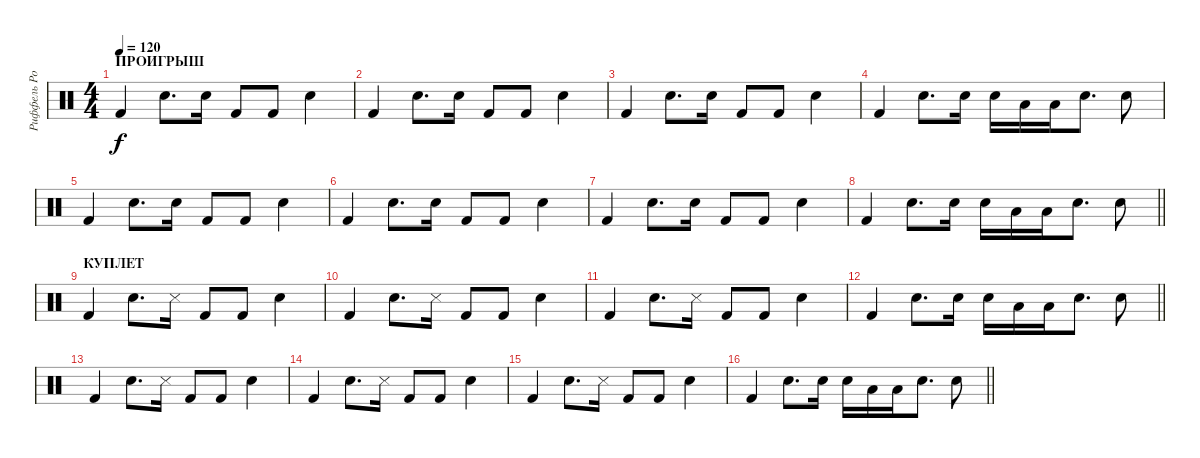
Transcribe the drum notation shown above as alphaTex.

\track ("Риффель Роман(главные)" "Риффель Ро") {instrument percussion}
\staff {score}
\articulation defaults
\ts (4 4)
\section ("" "ПРОИГРЫШ")
\tempo 120
\clef neutral
\ks c "Kick (hit) 2".4{dy f} "Electric Snare (hit)".8{d} "Electric Snare (hit)".16 "Kick (hit) 2".8 "Kick (hit) 2".8 "Electric Snare (hit)".4
|
"Kick (hit) 2".4 "Electric Snare (hit)".8{d} "Electric Snare (hit)".16 "Kick (hit) 2".8 "Kick (hit) 2".8 "Electric Snare (hit)".4 |
"Kick (hit) 2".4 "Electric Snare (hit)".8{d} "Electric Snare (hit)".16 "Kick (hit) 2".8 "Kick (hit) 2".8 "Electric Snare (hit)".4 |
"Kick (hit) 2".4 "Electric Snare (hit)".8{d} "Electric Snare (hit)".16 "Electric Snare (hit)".16 "Low Tom (hit)".16 "Low Tom (hit)".16 "Electric Snare (hit)".8{d} "Electric Snare (hit)".8 |
"Kick (hit) 2".4 "Electric Snare (hit)".8{d} "Electric Snare (hit)".16 "Kick (hit) 2".8 "Kick (hit) 2".8 "Electric Snare (hit)".4 |
"Kick (hit) 2".4 "Electric Snare (hit)".8{d} "Electric Snare (hit)".16 "Kick (hit) 2".8 "Kick (hit) 2".8 "Electric Snare (hit)".4 |
"Kick (hit) 2".4 "Electric Snare (hit)".8{d} "Electric Snare (hit)".16 "Kick (hit) 2".8 "Kick (hit) 2".8 "Electric Snare (hit)".4 |
\barLineRight lightlight "Kick (hit) 2".4 "Electric Snare (hit)".8{d} "Electric Snare (hit)".16 "Electric Snare (hit)".16 "Low Tom (hit)".16 "Low Tom (hit)".16 "Electric Snare (hit)".8{d} "Electric Snare (hit)".8
|
\section ("" "КУПЛЕТ")
"Kick (hit) 2".4 "Electric Snare (hit)".8{d} "Snare (side stick) 3".16 "Kick (hit) 2".8 "Kick (hit) 2".8 "Electric Snare (hit)".4 |
"Kick (hit) 2".4 "Electric Snare (hit)".8{d} "Snare (side stick) 3".16 "Kick (hit) 2".8 "Kick (hit) 2".8 "Electric Snare (hit)".4 |
"Kick (hit) 2".4 "Electric Snare (hit)".8{d} "Snare (side stick) 3".16 "Kick (hit) 2".8 "Kick (hit) 2".8 "Electric Snare (hit)".4 |
\barLineRight lightlight "Kick (hit) 2".4 "Electric Snare (hit)".8{d} "Electric Snare (hit)".16 "Electric Snare (hit)".16 "Low Tom (hit)".16 "Low Tom (hit)".16 "Electric Snare (hit)".8{d} "Electric Snare (hit)".8
|
"Kick (hit) 2".4 "Electric Snare (hit)".8{d} "Snare (side stick) 3".16 "Kick (hit) 2".8 "Kick (hit) 2".8 "Electric Snare (hit)".4 |
"Kick (hit) 2".4 "Electric Snare (hit)".8{d} "Snare (side stick) 3".16 "Kick (hit) 2".8 "Kick (hit) 2".8 "Electric Snare (hit)".4 |
"Kick (hit) 2".4 "Electric Snare (hit)".8{d} "Snare (side stick) 3".16 "Kick (hit) 2".8 "Kick (hit) 2".8 "Electric Snare (hit)".4 |
\barLineRight lightlight "Kick (hit) 2".4 "Electric Snare (hit)".8{d} "Electric Snare (hit)".16 "Electric Snare (hit)".16 "Low Tom (hit)".16 "Low Tom (hit)".16 "Electric Snare (hit)".8{d} "Electric Snare (hit)".8
